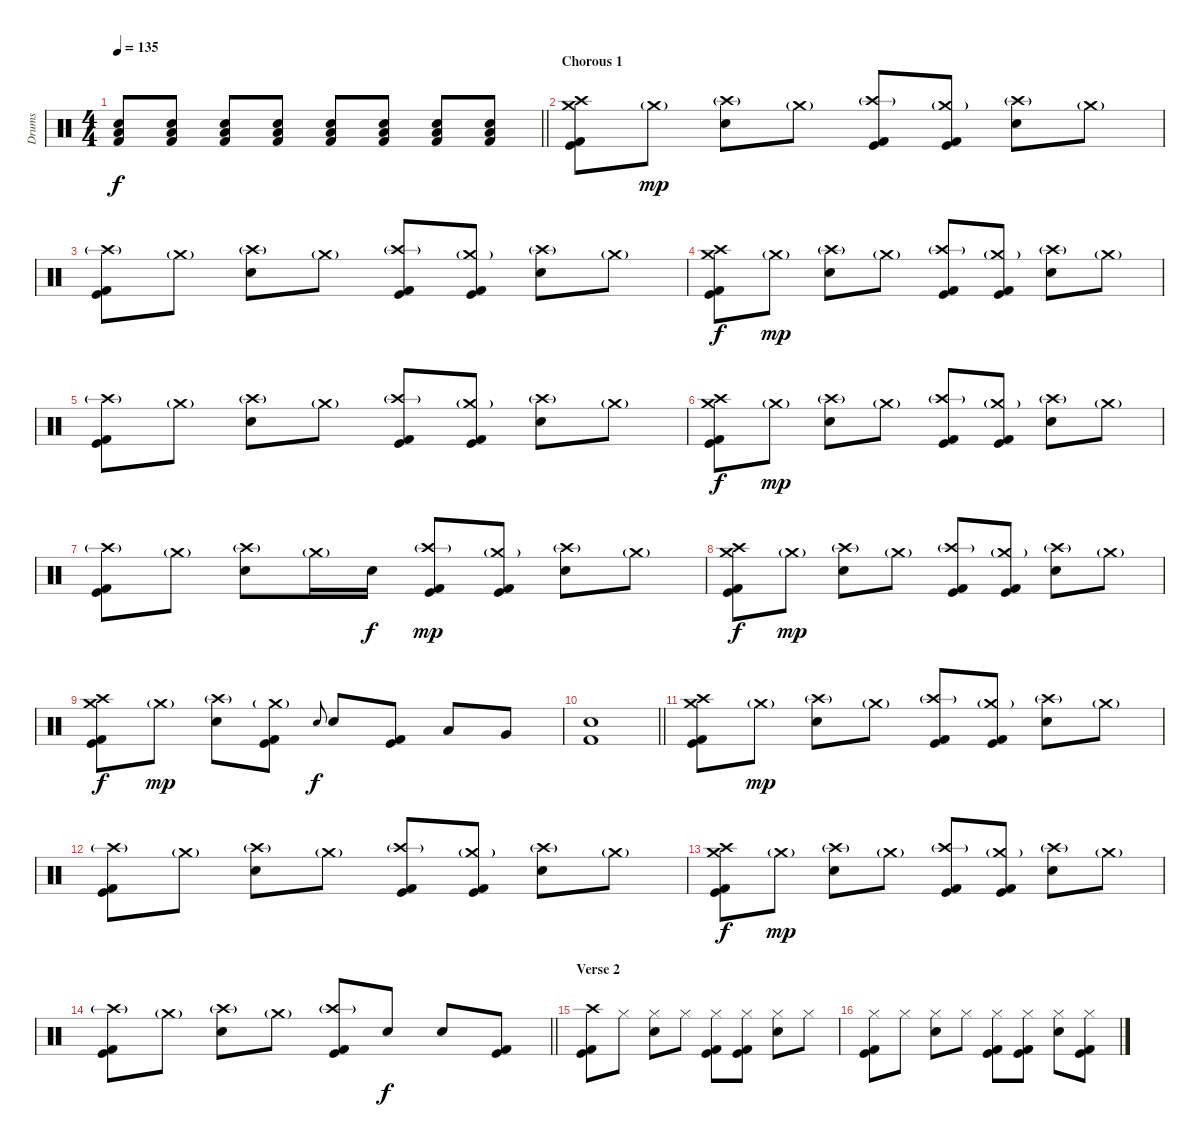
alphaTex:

\track ("Drums" "Drums") {instrument percussion}
\staff {score}
\articulation defaults
\ts (4 4)
\tempo 135
\clef neutral
\barLineRight lightlight
\ks c
("Electric Snare (hit)" "Low Floor Tom (hit)" "Kick (hit) 2").8{dy f} ("Electric Snare (hit)" "Low Floor Tom (hit)" "Kick (hit) 2").8 ("Electric Snare (hit)" "Low Floor Tom (hit)" "Kick (hit) 2").8 ("Electric Snare (hit)" "Low Floor Tom (hit)" "Kick (hit) 2").8 ("Electric Snare (hit)" "Low Floor Tom (hit)" "Kick (hit) 2").8 ("Electric Snare (hit)" "Low Floor Tom (hit)" "Kick (hit) 2").8 ("Electric Snare (hit)" "Low Floor Tom (hit)" "Kick (hit) 2").8 ("Electric Snare (hit)" "Low Floor Tom (hit)" "Kick (hit) 2").8 |
\section ("" "Chorous 1")
("Crash high (hit)" "Crash medium (hit)" "Kick (hit)" "Kick (hit) 2").8 "Crash medium (hit)"{g}.8{dy mp} ("Crash high (hit)"{g} "Electric Snare (hit)").8 "Crash medium (hit)"{g}.8 ("Crash high (hit)"{g} "Kick (hit)" "Kick (hit) 2").8 ("Crash medium (hit)"{g} "Kick (hit)" "Kick (hit) 2").8 ("Crash high (hit)"{g} "Electric Snare (hit)").8 "Crash medium (hit)"{g}.8 |
("Crash high (hit)"{g} "Kick (hit)" "Kick (hit) 2").8 "Crash medium (hit)"{g}.8 ("Crash high (hit)"{g} "Electric Snare (hit)").8 "Crash medium (hit)"{g}.8 ("Crash high (hit)"{g} "Kick (hit)" "Kick (hit) 2").8 ("Crash medium (hit)"{g} "Kick (hit)" "Kick (hit) 2").8 ("Crash high (hit)"{g} "Electric Snare (hit)").8 "Crash medium (hit)"{g}.8 |
("Crash high (hit)" "Crash medium (hit)" "Kick (hit)" "Kick (hit) 2").8{dy f} "Crash medium (hit)"{g}.8{dy mp} ("Crash high (hit)"{g} "Electric Snare (hit)").8 "Crash medium (hit)"{g}.8 ("Crash high (hit)"{g} "Kick (hit)" "Kick (hit) 2").8 ("Crash medium (hit)"{g} "Kick (hit)" "Kick (hit) 2").8 ("Crash high (hit)"{g} "Electric Snare (hit)").8 "Crash medium (hit)"{g}.8 |
("Crash high (hit)"{g} "Kick (hit)" "Kick (hit) 2").8 "Crash medium (hit)"{g}.8 ("Crash high (hit)"{g} "Electric Snare (hit)").8 "Crash medium (hit)"{g}.8 ("Crash high (hit)"{g} "Kick (hit)" "Kick (hit) 2").8 ("Crash medium (hit)"{g} "Kick (hit)" "Kick (hit) 2").8 ("Crash high (hit)"{g} "Electric Snare (hit)").8 "Crash medium (hit)"{g}.8 |
("Crash high (hit)" "Crash medium (hit)" "Kick (hit)" "Kick (hit) 2").8{dy f} "Crash medium (hit)"{g}.8{dy mp} ("Crash high (hit)"{g} "Electric Snare (hit)").8 "Crash medium (hit)"{g}.8 ("Crash high (hit)"{g} "Kick (hit)" "Kick (hit) 2").8 ("Crash medium (hit)"{g} "Kick (hit)" "Kick (hit) 2").8 ("Crash high (hit)"{g} "Electric Snare (hit)").8 "Crash medium (hit)"{g}.8 |
("Crash high (hit)"{g} "Kick (hit)" "Kick (hit) 2").8 "Crash medium (hit)"{g}.8 ("Crash high (hit)"{g} "Electric Snare (hit)").8 "Crash medium (hit)"{g}.16 "Electric Snare (hit)".16{dy f} ("Crash high (hit)"{g} "Kick (hit)" "Kick (hit) 2").8{dy mp} ("Crash medium (hit)"{g} "Kick (hit)" "Kick (hit) 2").8 ("Crash high (hit)"{g} "Electric Snare (hit)").8 "Crash medium (hit)"{g}.8 |
("Crash high (hit)" "Crash medium (hit)" "Kick (hit)" "Kick (hit) 2").8{dy f} "Crash medium (hit)"{g}.8{dy mp} ("Crash high (hit)"{g} "Electric Snare (hit)").8 "Crash medium (hit)"{g}.8 ("Crash high (hit)"{g} "Kick (hit)" "Kick (hit) 2").8 ("Crash medium (hit)"{g} "Kick (hit)" "Kick (hit) 2").8 ("Crash high (hit)"{g} "Electric Snare (hit)").8 "Crash medium (hit)"{g}.8 |
("Crash high (hit)" "Crash medium (hit)" "Kick (hit)" "Kick (hit) 2").8{dy f} "Crash medium (hit)"{g}.8{dy mp} ("Crash high (hit)"{g} "Electric Snare (hit)").8 ("Crash medium (hit)"{g} "Kick (hit)" "Kick (hit) 2").8 "Electric Snare (hit)".8{gr onbeat dy f} "Electric Snare (hit)".8 ("Kick (hit)" "Kick (hit) 2").8 "Low Tom (hit)".8 "Very Low Tom (hit)".8 |
\barLineRight lightlight
("Electric Snare (hit)" "Kick (hit) 2").1 |
\section ("" "")
("Crash high (hit)" "Crash medium (hit)" "Kick (hit)" "Kick (hit) 2").8 "Crash medium (hit)"{g}.8{dy mp} ("Crash high (hit)"{g} "Electric Snare (hit)").8 "Crash medium (hit)"{g}.8 ("Crash high (hit)"{g} "Kick (hit)" "Kick (hit) 2").8 ("Crash medium (hit)"{g} "Kick (hit)" "Kick (hit) 2").8 ("Crash high (hit)"{g} "Electric Snare (hit)").8 "Crash medium (hit)"{g}.8 |
("Crash high (hit)"{g} "Kick (hit)" "Kick (hit) 2").8 "Crash medium (hit)"{g}.8 ("Crash high (hit)"{g} "Electric Snare (hit)").8 "Crash medium (hit)"{g}.8 ("Crash high (hit)"{g} "Kick (hit)" "Kick (hit) 2").8 ("Crash medium (hit)"{g} "Kick (hit)" "Kick (hit) 2").8 ("Crash high (hit)"{g} "Electric Snare (hit)").8 "Crash medium (hit)"{g}.8 |
("Crash high (hit)" "Crash medium (hit)" "Kick (hit)" "Kick (hit) 2").8{dy f} "Crash medium (hit)"{g}.8{dy mp} ("Crash high (hit)"{g} "Electric Snare (hit)").8 "Crash medium (hit)"{g}.8 ("Crash high (hit)"{g} "Kick (hit)" "Kick (hit) 2").8 ("Crash medium (hit)"{g} "Kick (hit)" "Kick (hit) 2").8 ("Crash high (hit)"{g} "Electric Snare (hit)").8 "Crash medium (hit)"{g}.8 |
\barLineRight lightlight
("Crash high (hit)"{g} "Kick (hit)" "Kick (hit) 2").8 "Crash medium (hit)"{g}.8 ("Crash high (hit)"{g} "Electric Snare (hit)").8 "Crash medium (hit)"{g}.8 ("Crash high (hit)"{g} "Kick (hit)" "Kick (hit) 2").8 "Electric Snare (hit)".8{dy f} "Electric Snare (hit)".8 ("Kick (hit)" "Kick (hit) 2").8 |
\section ("" "Verse 2")
("Crash high (hit)" "Kick (hit)" "Kick (hit) 2").8 "Hi-Hat (closed)".8 ("Hi-Hat (closed)" "Electric Snare (hit)").8 "Hi-Hat (closed)".8 ("Hi-Hat (closed)" "Kick (hit)" "Kick (hit) 2").8 ("Hi-Hat (closed)" "Kick (hit)" "Kick (hit) 2").8 ("Hi-Hat (closed)" "Electric Snare (hit)").8 "Hi-Hat (closed)".8 |
("Hi-Hat (closed)" "Kick (hit)" "Kick (hit) 2").8 "Hi-Hat (closed)".8 ("Hi-Hat (closed)" "Electric Snare (hit)").8 "Hi-Hat (closed)".8 ("Hi-Hat (closed)" "Kick (hit)" "Kick (hit) 2").8 ("Hi-Hat (closed)" "Kick (hit)" "Kick (hit) 2").8 ("Hi-Hat (closed)" "Electric Snare (hit)").8 ("Hi-Hat (closed)" "Kick (hit)" "Kick (hit) 2").8
